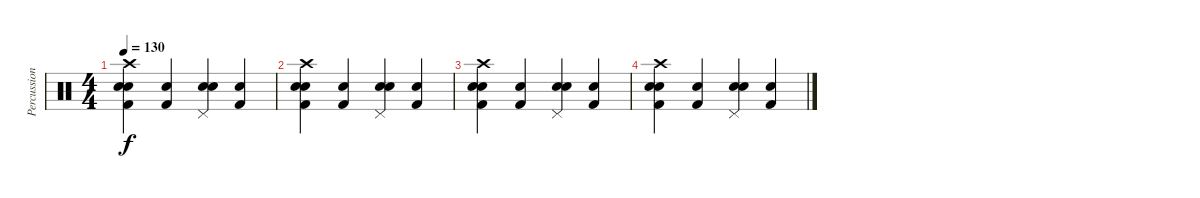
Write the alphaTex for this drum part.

\track ("Percussion" "Percussion") {instrument percussion}
\staff {score}
\articulation defaults
\ts (4 4)
\tempo 130
\clef neutral
\ks c
("Crash high (hit)" "Snare (hit) 2" "Kick (hit) 2" "Snare (hit) 2").4{dy f} ("Kick (hit) 2" "Snare (hit) 2").4 ("Pedal Hi-Hat (hit)" "Snare (hit) 2" "Snare (hit) 2").4 ("Snare (hit) 2" "Kick (hit) 2").4 |
("Crash high (hit)" "Snare (hit) 2" "Kick (hit) 2" "Snare (hit) 2").4 ("Kick (hit) 2" "Snare (hit) 2").4 ("Pedal Hi-Hat (hit)" "Snare (hit) 2" "Snare (hit) 2").4 ("Snare (hit) 2" "Kick (hit) 2").4 |
("Crash high (hit)" "Snare (hit) 2" "Kick (hit) 2" "Snare (hit) 2").4 ("Kick (hit) 2" "Snare (hit) 2").4 ("Pedal Hi-Hat (hit)" "Snare (hit) 2" "Snare (hit) 2").4 ("Snare (hit) 2" "Kick (hit) 2").4 |
("Crash high (hit)" "Snare (hit) 2" "Kick (hit) 2" "Snare (hit) 2").4 ("Kick (hit) 2" "Snare (hit) 2").4 ("Pedal Hi-Hat (hit)" "Snare (hit) 2" "Snare (hit) 2").4 ("Snare (hit) 2" "Kick (hit) 2").4
